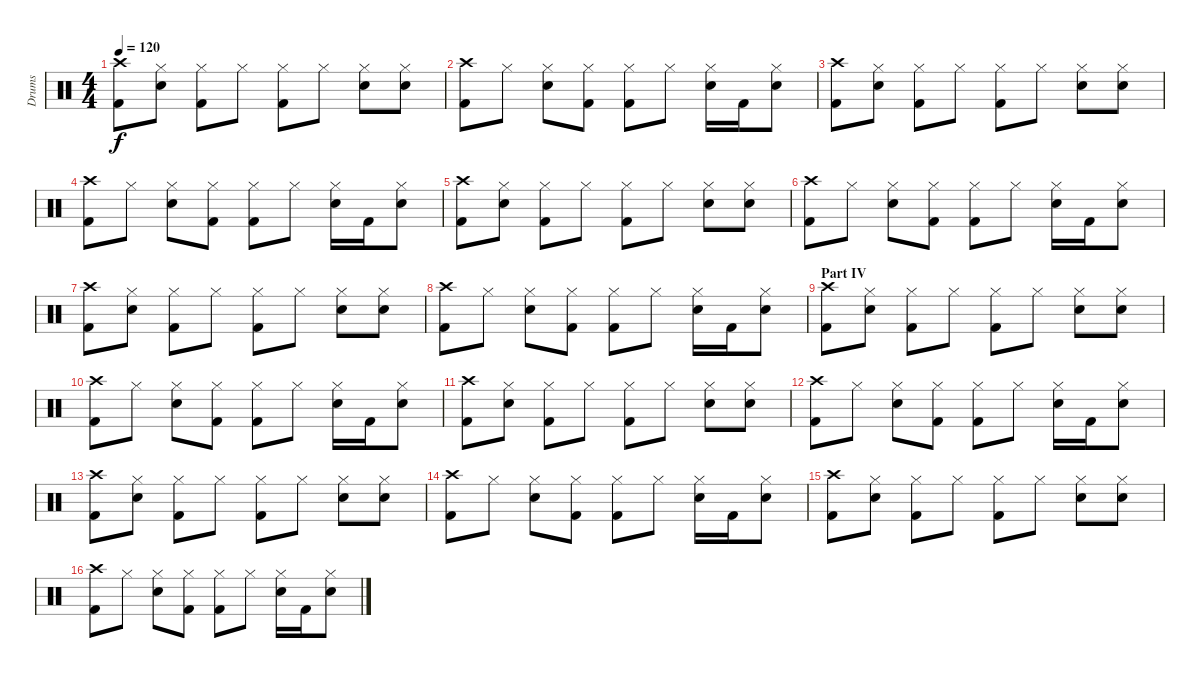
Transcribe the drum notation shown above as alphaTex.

\track ("Drums" "Drums") {instrument percussion}
\staff {score}
\articulation defaults
\ts (4 4)
\tempo 120
\clef neutral
\ks c
("Crash high (hit)" "Kick (hit) 2").8{dy f} ("Hi-Hat (closed)" "Snare (hit) 2").8 ("Hi-Hat (closed)" "Kick (hit) 2").8 "Hi-Hat (closed)".8 ("Hi-Hat (closed)" "Kick (hit) 2").8 "Hi-Hat (closed)".8 ("Hi-Hat (closed)" "Snare (hit) 2").8 ("Hi-Hat (closed)" "Snare (hit) 2").8 |
("Crash high (hit)" "Kick (hit) 2").8 "Hi-Hat (closed)".8 ("Hi-Hat (closed)" "Snare (hit) 2").8 ("Hi-Hat (closed)" "Kick (hit) 2").8 ("Hi-Hat (closed)" "Kick (hit) 2").8 "Hi-Hat (closed)".8 ("Hi-Hat (closed)" "Snare (hit) 2").16 "Kick (hit) 2".16 ("Hi-Hat (closed)" "Snare (hit) 2").8 |
("Crash high (hit)" "Kick (hit) 2").8 ("Hi-Hat (closed)" "Snare (hit) 2").8 ("Hi-Hat (closed)" "Kick (hit) 2").8 "Hi-Hat (closed)".8 ("Hi-Hat (closed)" "Kick (hit) 2").8 "Hi-Hat (closed)".8 ("Hi-Hat (closed)" "Snare (hit) 2").8 ("Hi-Hat (closed)" "Snare (hit) 2").8 |
("Crash high (hit)" "Kick (hit) 2").8 "Hi-Hat (closed)".8 ("Hi-Hat (closed)" "Snare (hit) 2").8 ("Hi-Hat (closed)" "Kick (hit) 2").8 ("Hi-Hat (closed)" "Kick (hit) 2").8 "Hi-Hat (closed)".8 ("Hi-Hat (closed)" "Snare (hit) 2").16 "Kick (hit) 2".16 ("Hi-Hat (closed)" "Snare (hit) 2").8 |
("Crash high (hit)" "Kick (hit) 2").8 ("Hi-Hat (closed)" "Snare (hit) 2").8 ("Hi-Hat (closed)" "Kick (hit) 2").8 "Hi-Hat (closed)".8 ("Hi-Hat (closed)" "Kick (hit) 2").8 "Hi-Hat (closed)".8 ("Hi-Hat (closed)" "Snare (hit) 2").8 ("Hi-Hat (closed)" "Snare (hit) 2").8 |
("Crash high (hit)" "Kick (hit) 2").8 "Hi-Hat (closed)".8 ("Hi-Hat (closed)" "Snare (hit) 2").8 ("Hi-Hat (closed)" "Kick (hit) 2").8 ("Hi-Hat (closed)" "Kick (hit) 2").8 "Hi-Hat (closed)".8 ("Hi-Hat (closed)" "Snare (hit) 2").16 "Kick (hit) 2".16 ("Hi-Hat (closed)" "Snare (hit) 2").8 |
("Crash high (hit)" "Kick (hit) 2").8 ("Hi-Hat (closed)" "Snare (hit) 2").8 ("Hi-Hat (closed)" "Kick (hit) 2").8 "Hi-Hat (closed)".8 ("Hi-Hat (closed)" "Kick (hit) 2").8 "Hi-Hat (closed)".8 ("Hi-Hat (closed)" "Snare (hit) 2").8 ("Hi-Hat (closed)" "Snare (hit) 2").8 |
("Crash high (hit)" "Kick (hit) 2").8 "Hi-Hat (closed)".8 ("Hi-Hat (closed)" "Snare (hit) 2").8 ("Hi-Hat (closed)" "Kick (hit) 2").8 ("Hi-Hat (closed)" "Kick (hit) 2").8 "Hi-Hat (closed)".8 ("Hi-Hat (closed)" "Snare (hit) 2").16 "Kick (hit) 2".16 ("Hi-Hat (closed)" "Snare (hit) 2").8 |
\section ("" "Part IV")
("Crash high (hit)" "Kick (hit) 2").8 ("Hi-Hat (closed)" "Snare (hit) 2").8 ("Hi-Hat (closed)" "Kick (hit) 2").8 "Hi-Hat (closed)".8 ("Hi-Hat (closed)" "Kick (hit) 2").8 "Hi-Hat (closed)".8 ("Hi-Hat (closed)" "Snare (hit) 2").8 ("Hi-Hat (closed)" "Snare (hit) 2").8 |
("Crash high (hit)" "Kick (hit) 2").8 "Hi-Hat (closed)".8 ("Hi-Hat (closed)" "Snare (hit) 2").8 ("Hi-Hat (closed)" "Kick (hit) 2").8 ("Hi-Hat (closed)" "Kick (hit) 2").8 "Hi-Hat (closed)".8 ("Hi-Hat (closed)" "Snare (hit) 2").16 "Kick (hit) 2".16 ("Hi-Hat (closed)" "Snare (hit) 2").8 |
("Crash high (hit)" "Kick (hit) 2").8 ("Hi-Hat (closed)" "Snare (hit) 2").8 ("Hi-Hat (closed)" "Kick (hit) 2").8 "Hi-Hat (closed)".8 ("Hi-Hat (closed)" "Kick (hit) 2").8 "Hi-Hat (closed)".8 ("Hi-Hat (closed)" "Snare (hit) 2").8 ("Hi-Hat (closed)" "Snare (hit) 2").8 |
("Crash high (hit)" "Kick (hit) 2").8 "Hi-Hat (closed)".8 ("Hi-Hat (closed)" "Snare (hit) 2").8 ("Hi-Hat (closed)" "Kick (hit) 2").8 ("Hi-Hat (closed)" "Kick (hit) 2").8 "Hi-Hat (closed)".8 ("Hi-Hat (closed)" "Snare (hit) 2").16 "Kick (hit) 2".16 ("Hi-Hat (closed)" "Snare (hit) 2").8 |
("Crash high (hit)" "Kick (hit) 2").8 ("Hi-Hat (closed)" "Snare (hit) 2").8 ("Hi-Hat (closed)" "Kick (hit) 2").8 "Hi-Hat (closed)".8 ("Hi-Hat (closed)" "Kick (hit) 2").8 "Hi-Hat (closed)".8 ("Hi-Hat (closed)" "Snare (hit) 2").8 ("Hi-Hat (closed)" "Snare (hit) 2").8 |
("Crash high (hit)" "Kick (hit) 2").8 "Hi-Hat (closed)".8 ("Hi-Hat (closed)" "Snare (hit) 2").8 ("Hi-Hat (closed)" "Kick (hit) 2").8 ("Hi-Hat (closed)" "Kick (hit) 2").8 "Hi-Hat (closed)".8 ("Hi-Hat (closed)" "Snare (hit) 2").16 "Kick (hit) 2".16 ("Hi-Hat (closed)" "Snare (hit) 2").8 |
("Crash high (hit)" "Kick (hit) 2").8 ("Hi-Hat (closed)" "Snare (hit) 2").8 ("Hi-Hat (closed)" "Kick (hit) 2").8 "Hi-Hat (closed)".8 ("Hi-Hat (closed)" "Kick (hit) 2").8 "Hi-Hat (closed)".8 ("Hi-Hat (closed)" "Snare (hit) 2").8 ("Hi-Hat (closed)" "Snare (hit) 2").8 |
("Crash high (hit)" "Kick (hit) 2").8 "Hi-Hat (closed)".8 ("Hi-Hat (closed)" "Snare (hit) 2").8 ("Hi-Hat (closed)" "Kick (hit) 2").8 ("Hi-Hat (closed)" "Kick (hit) 2").8 "Hi-Hat (closed)".8 ("Hi-Hat (closed)" "Snare (hit) 2").16 "Kick (hit) 2".16 ("Hi-Hat (closed)" "Snare (hit) 2").8
